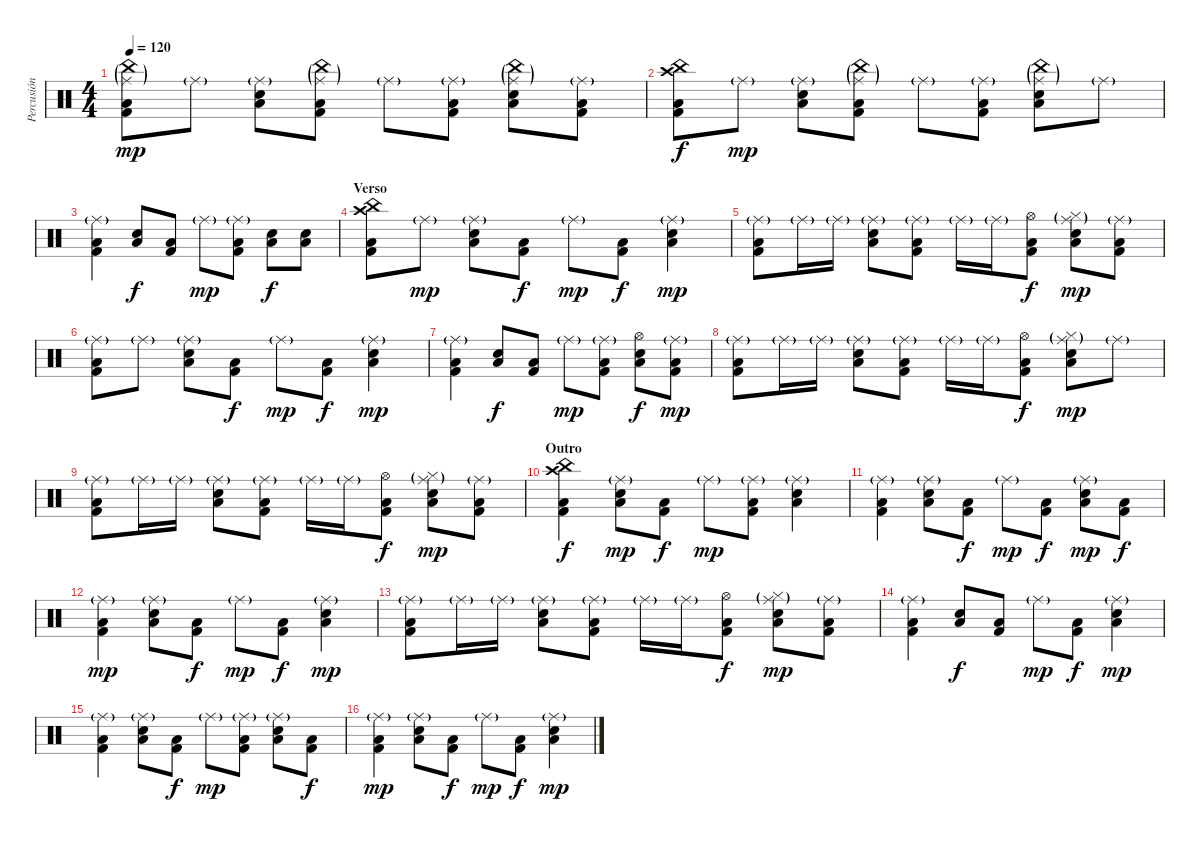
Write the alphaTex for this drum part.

\track ("Percusión" "Percusión") {instrument percussion}
\staff {score}
\articulation defaults
\ts (4 4)
\tempo 120
\clef neutral
\ks c
("Ride (middle)"{g} "China (hit)"{g} "Low Floor Tom (hit)" "Kick (hit) 2").8{dy mp} "Ride (middle)"{g}.8 ("Ride (middle)"{g} "Low Tom (hit)" "Electric Snare (hit)").8 ("Ride (middle)"{g} "China (hit)"{g} "Low Floor Tom (hit)" "Kick (hit) 2").8 "Ride (middle)"{g}.8 ("Ride (middle)"{g} "Low Floor Tom (hit)" "Kick (hit) 2").8 ("Ride (middle)"{g} "China (hit)"{g} "Low Tom (hit)" "Electric Snare (hit)").8 ("Ride (middle)"{g} "Low Floor Tom (hit)" "Kick (hit) 2").8 |
("China (hit)" "Crash high (hit)" "Low Floor Tom (hit)" "Kick (hit) 2").8{dy f} "Ride (middle)"{g}.8{dy mp} ("Ride (middle)"{g} "Low Tom (hit)" "Electric Snare (hit)").8 ("Ride (middle)"{g} "China (hit)"{g} "Low Floor Tom (hit)" "Kick (hit) 2").8 "Ride (middle)"{g}.8 ("Ride (middle)"{g} "Low Floor Tom (hit)" "Kick (hit) 2").8 ("Ride (middle)"{g} "China (hit)"{g} "Low Tom (hit)" "Electric Snare (hit)").8 "Ride (middle)"{g}.8 |
("Ride (middle)"{g} "Low Floor Tom (hit)" "Kick (hit) 2").4 ("Low Tom (hit)" "Electric Snare (hit)").8{dy f} ("Low Floor Tom (hit)" "Kick (hit) 2").8 "Ride (middle)"{g}.8{dy mp} ("Ride (middle)"{g} "Low Floor Tom (hit)" "Kick (hit) 2").8 ("Low Tom (hit)" "Electric Snare (hit)").8{dy f} ("Low Tom (hit)" "Electric Snare (hit)").8 |
\section ("" "Verso")
("China (hit)" "Crash high (hit)" "Low Floor Tom (hit)" "Kick (hit) 2").8 "Ride (middle)"{g}.8{dy mp} ("Ride (middle)"{g} "Low Tom (hit)" "Electric Snare (hit)").8 ("Low Floor Tom (hit)" "Kick (hit) 2").8{dy f} "Ride (middle)"{g}.8{dy mp} ("Low Floor Tom (hit)" "Kick (hit) 2").8{dy f} ("Ride (middle)"{g} "Low Tom (hit)" "Electric Snare (hit)").4{dy mp} |
("Ride (middle)"{g} "Low Floor Tom (hit)" "Kick (hit) 2").8 "Ride (middle)"{g}.16 "Ride (middle)"{g}.16 ("Ride (middle)"{g} "Low Tom (hit)" "Electric Snare (hit)").8 ("Ride (middle)"{g} "Low Floor Tom (hit)" "Kick (hit) 2").8 "Ride (middle)"{g}.16 "Ride (middle)"{g}.16 ("Hi-Hat (open)" "Low Floor Tom (hit)" "Kick (hit) 2").8{dy f} ("Ride (middle)"{g} "Hi-Hat (closed)"{g} "Low Tom (hit)" "Electric Snare (hit)").8{dy mp} ("Ride (middle)"{g} "Low Floor Tom (hit)" "Kick (hit) 2").8 |
("Ride (middle)"{g} "Low Floor Tom (hit)" "Kick (hit) 2").8 "Ride (middle)"{g}.8 ("Ride (middle)"{g} "Low Tom (hit)" "Electric Snare (hit)").8 ("Low Floor Tom (hit)" "Kick (hit) 2").8{dy f} "Ride (middle)"{g}.8{dy mp} ("Low Floor Tom (hit)" "Kick (hit) 2").8{dy f} ("Ride (middle)"{g} "Low Tom (hit)" "Electric Snare (hit)").4{dy mp} |
("Ride (middle)"{g} "Low Floor Tom (hit)" "Kick (hit) 2").4 ("Low Tom (hit)" "Electric Snare (hit)").8{dy f} ("Low Floor Tom (hit)" "Kick (hit) 2").8 "Ride (middle)"{g}.8{dy mp} ("Ride (middle)"{g} "Low Floor Tom (hit)" "Kick (hit) 2").8 ("Hi-Hat (open)" "Low Tom (hit)" "Electric Snare (hit)").8{dy f} ("Ride (middle)"{g} "Low Floor Tom (hit)" "Kick (hit) 2").8{dy mp} |
("Ride (middle)"{g} "Low Floor Tom (hit)" "Kick (hit) 2").8 "Ride (middle)"{g}.16 "Ride (middle)"{g}.16 ("Ride (middle)"{g} "Low Tom (hit)" "Electric Snare (hit)").8 ("Ride (middle)"{g} "Low Floor Tom (hit)" "Kick (hit) 2").8 "Ride (middle)"{g}.16 "Ride (middle)"{g}.16 ("Hi-Hat (open)" "Low Floor Tom (hit)" "Kick (hit) 2").8{dy f} ("Ride (middle)"{g} "Hi-Hat (closed)"{g} "Low Tom (hit)" "Electric Snare (hit)").8{dy mp} "Ride (middle)"{g}.8 |
("Ride (middle)"{g} "Low Floor Tom (hit)" "Kick (hit) 2").8 "Ride (middle)"{g}.16 "Ride (middle)"{g}.16 ("Ride (middle)"{g} "Low Tom (hit)" "Electric Snare (hit)").8 ("Ride (middle)"{g} "Low Floor Tom (hit)" "Kick (hit) 2").8 "Ride (middle)"{g}.16 "Ride (middle)"{g}.16 ("Hi-Hat (open)" "Low Floor Tom (hit)" "Kick (hit) 2").8{dy f} ("Ride (middle)"{g} "Hi-Hat (closed)"{g} "Low Tom (hit)" "Electric Snare (hit)").8{dy mp} ("Ride (middle)"{g} "Low Floor Tom (hit)" "Kick (hit) 2").8 |
\section ("" "Outro")
("China (hit)" "Crash high (hit)" "Low Floor Tom (hit)" "Kick (hit) 2").4{dy f} ("Ride (middle)"{g} "Low Tom (hit)" "Electric Snare (hit)").8{dy mp} ("Low Floor Tom (hit)" "Kick (hit) 2").8{dy f} "Ride (middle)"{g}.8{dy mp} ("Ride (middle)"{g} "Low Floor Tom (hit)" "Kick (hit) 2").8 ("Ride (middle)"{g} "Low Tom (hit)" "Electric Snare (hit)").4 |
("Ride (middle)"{g} "Low Floor Tom (hit)" "Kick (hit) 2").4 ("Ride (middle)"{g} "Low Tom (hit)" "Electric Snare (hit)").8 ("Low Floor Tom (hit)" "Kick (hit) 2").8{dy f} "Ride (middle)"{g}.8{dy mp} ("Low Floor Tom (hit)" "Kick (hit) 2").8{dy f} ("Ride (middle)"{g} "Low Tom (hit)" "Electric Snare (hit)").8{dy mp} ("Low Floor Tom (hit)" "Kick (hit) 2").8{dy f} |
("Ride (middle)"{g} "Low Floor Tom (hit)" "Kick (hit) 2").4{dy mp} ("Ride (middle)"{g} "Low Tom (hit)" "Electric Snare (hit)").8 ("Low Floor Tom (hit)" "Kick (hit) 2").8{dy f} "Ride (middle)"{g}.8{dy mp} ("Low Floor Tom (hit)" "Kick (hit) 2").8{dy f} ("Ride (middle)"{g} "Low Tom (hit)" "Electric Snare (hit)").4{dy mp} |
("Ride (middle)"{g} "Low Floor Tom (hit)" "Kick (hit) 2").8 "Ride (middle)"{g}.16 "Ride (middle)"{g}.16 ("Ride (middle)"{g} "Low Tom (hit)" "Electric Snare (hit)").8 ("Ride (middle)"{g} "Low Floor Tom (hit)" "Kick (hit) 2").8 "Ride (middle)"{g}.16 "Ride (middle)"{g}.16 ("Hi-Hat (open)" "Low Floor Tom (hit)" "Kick (hit) 2").8{dy f} ("Ride (middle)"{g} "Hi-Hat (closed)"{g} "Low Tom (hit)" "Electric Snare (hit)").8{dy mp} ("Ride (middle)"{g} "Low Floor Tom (hit)" "Kick (hit) 2").8 |
("Ride (middle)"{g} "Low Floor Tom (hit)" "Kick (hit) 2").4 ("Low Tom (hit)" "Electric Snare (hit)").8{dy f} ("Low Floor Tom (hit)" "Kick (hit) 2").8 "Ride (middle)"{g}.8{dy mp} ("Low Floor Tom (hit)" "Kick (hit) 2").8{dy f} ("Ride (middle)"{g} "Low Tom (hit)" "Electric Snare (hit)").4{dy mp} |
("Ride (middle)"{g} "Low Floor Tom (hit)" "Kick (hit) 2").4 ("Ride (middle)"{g} "Low Tom (hit)" "Electric Snare (hit)").8 ("Low Floor Tom (hit)" "Kick (hit) 2").8{dy f} "Ride (middle)"{g}.8{dy mp} ("Ride (middle)"{g} "Low Floor Tom (hit)" "Kick (hit) 2").8 ("Ride (middle)"{g} "Low Tom (hit)" "Electric Snare (hit)").8 ("Low Floor Tom (hit)" "Kick (hit) 2").8{dy f} |
("Ride (middle)"{g} "Low Floor Tom (hit)" "Kick (hit) 2").4{dy mp} ("Ride (middle)"{g} "Low Tom (hit)" "Electric Snare (hit)").8 ("Low Floor Tom (hit)" "Kick (hit) 2").8{dy f} "Ride (middle)"{g}.8{dy mp} ("Low Floor Tom (hit)" "Kick (hit) 2").8{dy f} ("Ride (middle)"{g} "Low Tom (hit)" "Electric Snare (hit)").4{dy mp}
